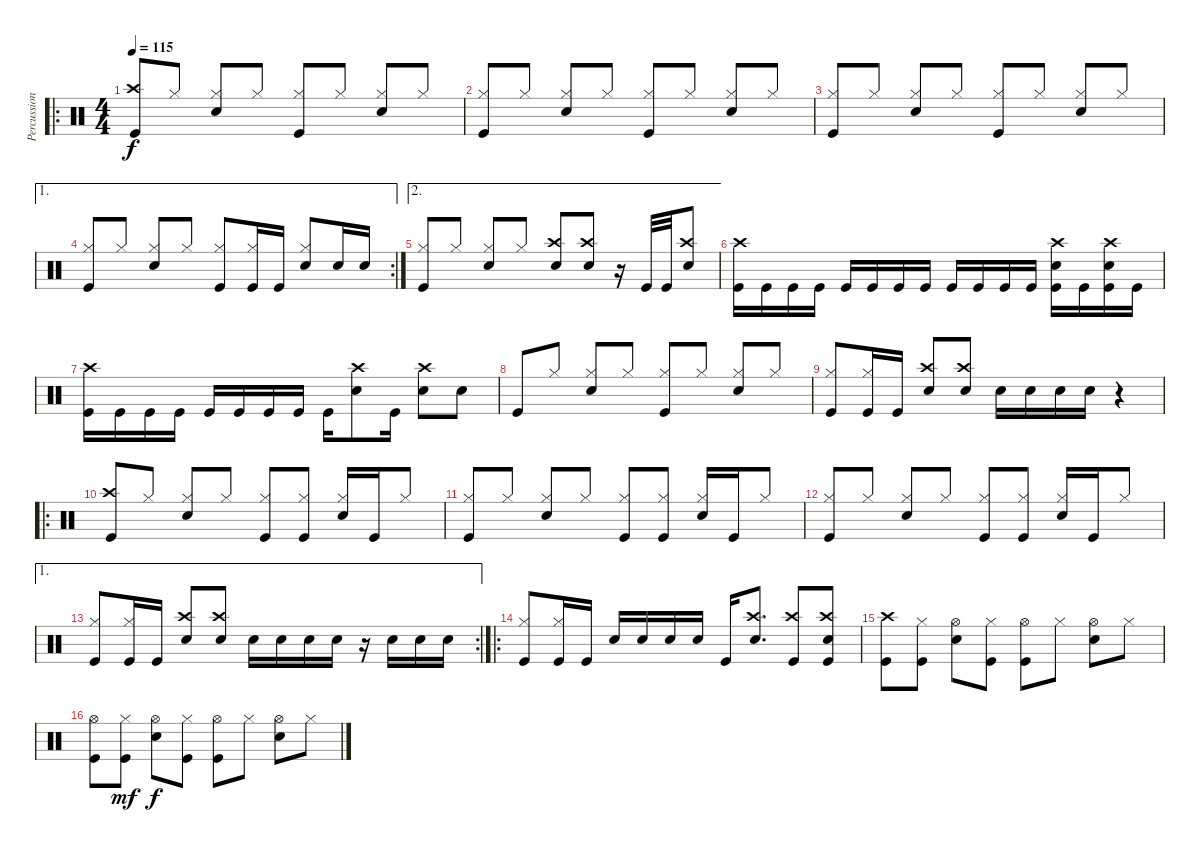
\track ("Percussion" "Percussion") {instrument percussion}
\staff {score}
\articulation defaults
\ro
\ts (4 4)
\tempo 115
\clef neutral
\ks c
("Crash high (hit)" "Kick (hit)").8{dy f beam Up} "Hi-Hat (closed)".8{beam Up} ("Hi-Hat (closed)" "Snare (hit) 2").8{beam Up} "Hi-Hat (closed)".8{beam Up} ("Hi-Hat (closed)" "Kick (hit)").8{beam Up} "Hi-Hat (closed)".8{beam Up} ("Hi-Hat (closed)" "Snare (hit) 2").8{beam Up} "Hi-Hat (closed)".8{beam Up} |
("Hi-Hat (closed)" "Kick (hit)").8{beam Up} "Hi-Hat (closed)".8{beam Up} ("Hi-Hat (closed)" "Snare (hit) 2").8{beam Up} "Hi-Hat (closed)".8{beam Up} ("Hi-Hat (closed)" "Kick (hit)").8{beam Up} "Hi-Hat (closed)".8{beam Up} ("Hi-Hat (closed)" "Snare (hit) 2").8{beam Up} "Hi-Hat (closed)".8{beam Up} |
("Hi-Hat (closed)" "Kick (hit)").8{beam Up} "Hi-Hat (closed)".8{beam Up} ("Hi-Hat (closed)" "Snare (hit) 2").8{beam Up} "Hi-Hat (closed)".8{beam Up} ("Hi-Hat (closed)" "Kick (hit)").8{beam Up} "Hi-Hat (closed)".8{beam Up} ("Hi-Hat (closed)" "Snare (hit) 2").8{beam Up} "Hi-Hat (closed)".8{beam Up} |
\ae 1
\rc 2
("Hi-Hat (closed)" "Kick (hit)").8{beam Up} "Hi-Hat (closed)".8{beam Up} ("Hi-Hat (closed)" "Snare (hit) 2").8{beam Up} "Hi-Hat (closed)".8{beam Up} ("Hi-Hat (closed)" "Kick (hit)").8{beam Up} ("Hi-Hat (closed)" "Kick (hit)").16{beam Up} "Kick (hit)".16{beam Up} ("Hi-Hat (closed)" "Snare (hit) 2").8{beam Up} "Snare (hit) 2".16{beam Up} "Snare (hit) 2".16{beam Up} |
\ae 2
("Hi-Hat (closed)" "Kick (hit)").8{beam Up} "Hi-Hat (closed)".8{beam Up} ("Hi-Hat (closed)" "Snare (hit) 2").8{beam Up} "Hi-Hat (closed)".8{beam Up} ("Crash high (hit)" "Snare (hit) 2").8{beam Up} ("Crash high (hit)" "Snare (hit) 2").8{beam Up} r.16 "Kick (hit)".32{beam Up} "Kick (hit)".32{beam Up} ("Snare (hit) 2" "Crash high (hit)").8{beam Up} |
("Kick (hit)" "Crash high (hit)").16{beam Down} "Kick (hit)".16{beam Down} "Kick (hit)".16{beam Down} "Kick (hit)".16{beam Down} "Kick (hit)".16 "Kick (hit)".16 "Kick (hit)".16 "Kick (hit)".16 "Kick (hit)".16 "Kick (hit)".16 "Kick (hit)".16 "Kick (hit)".16 ("Kick (hit)" "Crash high (hit)" "Snare (hit) 2").16 "Kick (hit)".16 ("Kick (hit)" "Crash high (hit)" "Snare (hit) 2").16 "Kick (hit)".16 |
("Kick (hit)" "Crash high (hit)").16 "Kick (hit)".16 "Kick (hit)".16 "Kick (hit)".16 "Kick (hit)".16 "Kick (hit)".16 "Kick (hit)".16 "Kick (hit)".16 "Kick (hit)".16 ("Crash high (hit)" "Snare (hit) 2").8 "Kick (hit)".16 ("Crash high (hit)" "Snare (hit) 2").8 "Snare (hit) 2".8 |
"Kick (hit)".8{beam Up} "Hi-Hat (closed)".8{beam Up} ("Hi-Hat (closed)" "Snare (hit) 2").8{beam Up} "Hi-Hat (closed)".8{beam Up} ("Hi-Hat (closed)" "Kick (hit)").8{beam Up} "Hi-Hat (closed)".8{beam Up} ("Hi-Hat (closed)" "Snare (hit) 2").8{beam Up} "Hi-Hat (closed)".8{beam Up} |
("Hi-Hat (closed)" "Kick (hit)").8{beam Up} ("Hi-Hat (closed)" "Kick (hit)").16{beam Up} "Kick (hit)".16{beam Up} ("Crash high (hit)" "Snare (hit) 2").8{beam Up} ("Crash high (hit)" "Snare (hit) 2").8{beam Up} "Snare (hit) 2".16 "Snare (hit) 2".16 "Snare (hit) 2".16 "Snare (hit) 2".16 r.4 |
\ro
("Crash high (hit)" "Kick (hit)").8{beam Up} "Hi-Hat (closed)".8{beam Up} ("Hi-Hat (closed)" "Snare (hit) 2").8{beam Up} "Hi-Hat (closed)".8{beam Up} ("Hi-Hat (closed)" "Kick (hit)").8{beam Up} ("Hi-Hat (closed)" "Kick (hit)").8{beam Up} ("Hi-Hat (closed)" "Snare (hit) 2").16{beam Up} "Kick (hit)".16{beam Up} "Hi-Hat (closed)".8{beam Up} |
("Hi-Hat (closed)" "Kick (hit)").8{beam Up} "Hi-Hat (closed)".8{beam Up} ("Hi-Hat (closed)" "Snare (hit) 2").8{beam Up} "Hi-Hat (closed)".8{beam Up} ("Hi-Hat (closed)" "Kick (hit)").8{beam Up} ("Hi-Hat (closed)" "Kick (hit)").8{beam Up} ("Hi-Hat (closed)" "Snare (hit) 2").16{beam Up} "Kick (hit)".16{beam Up} "Hi-Hat (closed)".8{beam Up} |
("Hi-Hat (closed)" "Kick (hit)").8{beam Up} "Hi-Hat (closed)".8{beam Up} ("Hi-Hat (closed)" "Snare (hit) 2").8{beam Up} "Hi-Hat (closed)".8{beam Up} ("Hi-Hat (closed)" "Kick (hit)").8{beam Up} ("Hi-Hat (closed)" "Kick (hit)").8{beam Up} ("Hi-Hat (closed)" "Snare (hit) 2").16{beam Up} "Kick (hit)".16{beam Up} "Hi-Hat (closed)".8{beam Up} |
\ae 1
\rc 2
("Hi-Hat (closed)" "Kick (hit)").8{beam Up} ("Hi-Hat (closed)" "Kick (hit)").16{beam Up} "Kick (hit)".16{beam Up} ("Crash high (hit)" "Snare (hit) 2").8{beam Up} ("Crash high (hit)" "Snare (hit) 2").8{beam Up} "Snare (hit) 2".16 "Snare (hit) 2".16 "Snare (hit) 2".16 "Snare (hit) 2".16 r.16 "Snare (hit) 2".16 "Snare (hit) 2".16 "Snare (hit) 2".16 |
\ro
("Hi-Hat (closed)" "Kick (hit)").8{beam Up} ("Hi-Hat (closed)" "Kick (hit)").16{beam Up} "Kick (hit)".16{beam Up} "Snare (hit) 2".16{beam Up} "Snare (hit) 2".16{beam Up} "Snare (hit) 2".16{beam Up} "Snare (hit) 2".16{beam Up} "Kick (hit)".16{beam Up} ("Snare (hit) 2" "Crash high (hit)").8{d beam Up} ("Crash high (hit)" "Kick (hit)").8{beam Up} ("Crash high (hit)" "Kick (hit)" "Snare (hit) 2").8{beam Up} |
("Crash high (hit)" "Kick (hit)").8 ("Hi-Hat (closed)" "Kick (hit)").8 ("Hi-Hat (open)" "Snare (hit) 2").8 ("Hi-Hat (closed)" "Kick (hit)").8 ("Hi-Hat (open)" "Kick (hit)").8 "Hi-Hat (closed)".8 ("Hi-Hat (open)" "Snare (hit) 2").8 "Hi-Hat (closed)".8 |
("Hi-Hat (open)" "Kick (hit)").8 ("Hi-Hat (closed)" "Kick (hit)").8{dy mf} ("Hi-Hat (open)" "Snare (hit) 2").8{dy f} ("Hi-Hat (closed)" "Kick (hit)").8 ("Hi-Hat (open)" "Kick (hit)").8 "Hi-Hat (closed)".8 ("Hi-Hat (open)" "Snare (hit) 2").8 "Hi-Hat (closed)".8
